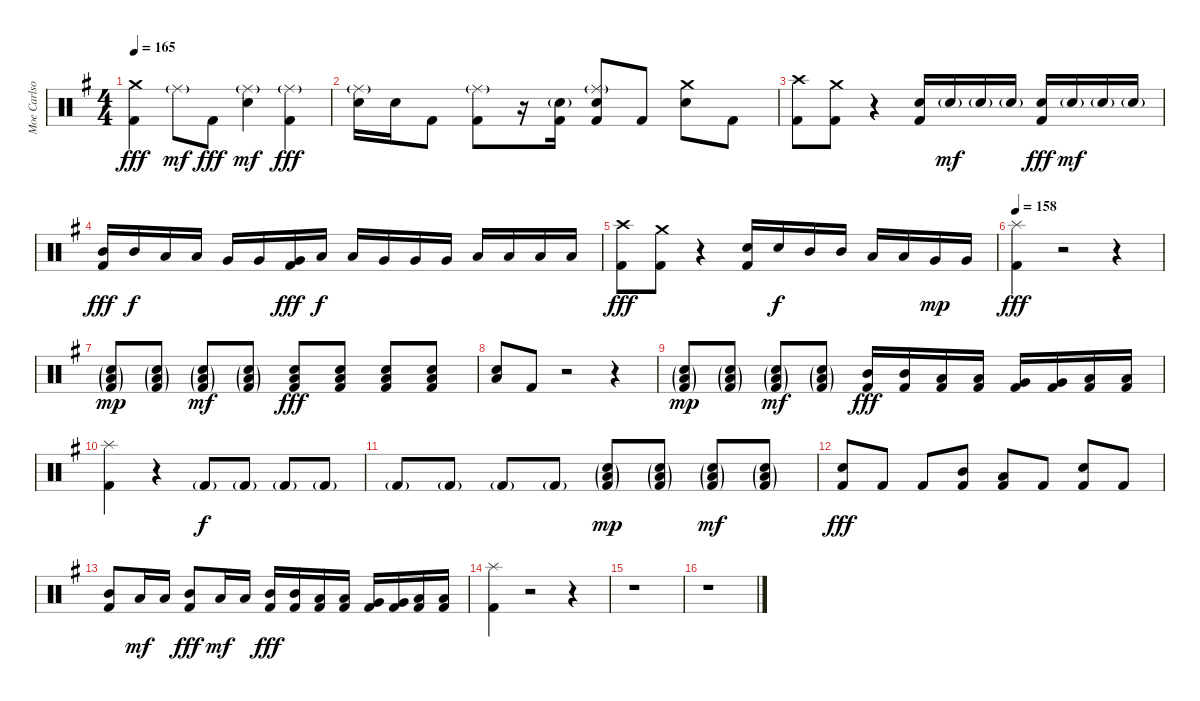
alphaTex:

\track ("Moe Carlson" "Moe Carlso") {instrument percussion}
\staff {score}
\articulation defaults
\ts (4 4)
\tempo 165
\clef neutral
\ks g
("Crash medium (hit)" "Kick (hit) 2").4{dy fff} "Ride (middle)"{g}.8{dy mf} "Kick (hit) 2".8{dy fff} ("Ride (middle)"{g} "Electric Snare (hit)").4{dy mf} ("Ride (middle)"{g} "Kick (hit) 2").4{dy fff} |
("Ride (middle)"{g} "Electric Snare (hit)").16 "Electric Snare (hit)".16 "Kick (hit) 2".8 ("Ride (middle)"{g} "Kick (hit) 2").8 r.16 ("Electric Snare (hit)"{g} "Kick (hit) 2").16 ("Ride (middle)"{g} "Electric Snare (hit)" "Kick (hit) 2").8 "Kick (hit) 2".8 ("Crash medium (hit)" "Electric Snare (hit)").8 "Kick (hit) 2".8 |
("Crash high (hit)" "Kick (hit) 2").8 ("Crash medium (hit)" "Kick (hit) 2").8 r.4 ("Electric Snare (hit)" "Kick (hit) 2").16 "Electric Snare (hit)"{g}.16{dy mf} "Electric Snare (hit)"{g}.16 "Electric Snare (hit)"{g}.16 ("Electric Snare (hit)" "Kick (hit) 2").16{dy fff} "Electric Snare (hit)"{g}.16{dy mf} "Electric Snare (hit)"{g}.16 "Electric Snare (hit)"{g}.16 |
("Mid Tom (hit)" "Kick (hit) 2").16{dy fff} "Mid Tom (hit)".16{dy f} "Low Tom (hit)".16 "Low Tom (hit)".16 "Very Low Tom (hit)".16 "Very Low Tom (hit)".16 ("Very Low Tom (hit)" "Kick (hit) 2").16{dy fff} "Low Tom (hit)".16{dy f} "Low Tom (hit)".16 "Very Low Tom (hit)".16 "Very Low Tom (hit)".16 "Very Low Tom (hit)".16 "Low Floor Tom (hit)".16 "Low Floor Tom (hit)".16 "Low Floor Tom (hit)".16 "Low Floor Tom (hit)".16 |
("Crash high (hit)" "Kick (hit) 2").8{dy fff} ("Crash medium (hit)" "Kick (hit) 2").8 r.4 ("Electric Snare (hit)" "Kick (hit) 2").16 "Electric Snare (hit)".16{dy f} "Mid Tom (hit)".16 "Mid Tom (hit)".16 "Low Tom (hit)".16 "Low Tom (hit)".16 "Very Low Tom (hit)".16{dy mp} "Very Low Tom (hit)".16 |
\tempo 158
("Splash (hit)" "Kick (hit) 2").4{dy fff} r.2 r.4 |
("Electric Snare (hit)"{g} "Low Floor Tom (hit)"{g} "Kick (hit) 2"{g}).8{dy mp} ("Electric Snare (hit)"{g} "Low Floor Tom (hit)"{g} "Kick (hit) 2"{g}).8 ("Electric Snare (hit)"{g} "Low Floor Tom (hit)"{g} "Kick (hit) 2"{g}).8{dy mf} ("Electric Snare (hit)"{g} "Low Floor Tom (hit)"{g} "Kick (hit) 2"{g}).8 ("Electric Snare (hit)" "Low Floor Tom (hit)" "Kick (hit) 2").8{dy fff} ("Electric Snare (hit)" "Low Floor Tom (hit)" "Kick (hit) 2").8 ("Electric Snare (hit)" "Low Floor Tom (hit)" "Kick (hit) 2").8 ("Electric Snare (hit)" "Low Floor Tom (hit)" "Kick (hit) 2").8 |
("Electric Snare (hit)" "Low Floor Tom (hit)").8 "Kick (hit) 2".8 r.2 r.4 |
("Electric Snare (hit)"{g} "Low Floor Tom (hit)"{g} "Kick (hit) 2"{g}).8{dy mp} ("Electric Snare (hit)"{g} "Low Floor Tom (hit)"{g} "Kick (hit) 2"{g}).8 ("Electric Snare (hit)"{g} "Low Floor Tom (hit)"{g} "Kick (hit) 2"{g}).8{dy mf} ("Electric Snare (hit)"{g} "Low Floor Tom (hit)"{g} "Kick (hit) 2"{g}).8 ("Mid Tom (hit)" "Kick (hit) 2").16{dy fff} ("Mid Tom (hit)" "Kick (hit) 2").16 ("Low Tom (hit)" "Kick (hit) 2").16 ("Low Tom (hit)" "Kick (hit) 2").16 ("Very Low Tom (hit)" "Kick (hit) 2").16 ("Very Low Tom (hit)" "Kick (hit) 2").16 ("Low Floor Tom (hit)" "Kick (hit) 2").16 ("Low Floor Tom (hit)" "Kick (hit) 2").16 |
("Splash (hit)" "Kick (hit) 2").4 r.4 "Kick (hit) 2"{g}.8{dy f} "Kick (hit) 2"{g}.8 "Kick (hit) 2"{g}.8 "Kick (hit) 2"{g}.8 |
"Kick (hit) 2"{g}.8 "Kick (hit) 2"{g}.8 "Kick (hit) 2"{g}.8 "Kick (hit) 2"{g}.8 ("Electric Snare (hit)"{g} "Low Floor Tom (hit)"{g} "Kick (hit) 2"{g}).8{dy mp} ("Electric Snare (hit)"{g} "Low Floor Tom (hit)"{g} "Kick (hit) 2"{g}).8 ("Electric Snare (hit)"{g} "Low Floor Tom (hit)"{g} "Kick (hit) 2"{g}).8{dy mf} ("Electric Snare (hit)"{g} "Low Floor Tom (hit)"{g} "Kick (hit) 2"{g}).8 |
("Electric Snare (hit)" "Kick (hit) 2").8{dy fff} "Kick (hit) 2".8 "Kick (hit) 2".8 ("Mid Tom (hit)" "Kick (hit) 2").8 ("Low Tom (hit)" "Kick (hit) 2").8 "Kick (hit) 2".8 ("Electric Snare (hit)" "Kick (hit) 2").8 "Kick (hit) 2".8 |
("Mid Tom (hit)" "Kick (hit) 2").8 "Low Tom (hit)".16{dy mf} "Low Tom (hit)".16 ("Mid Tom (hit)" "Kick (hit) 2").8{dy fff} "Low Tom (hit)".16{dy mf} "Low Tom (hit)".16 ("Mid Tom (hit)" "Kick (hit) 2").16{dy fff} ("Mid Tom (hit)" "Kick (hit) 2").16 ("Low Tom (hit)" "Kick (hit) 2").16 ("Low Tom (hit)" "Kick (hit) 2").16 ("Very Low Tom (hit)" "Kick (hit) 2").16 ("Very Low Tom (hit)" "Kick (hit) 2").16 ("Low Floor Tom (hit)" "Kick (hit) 2").16 ("Low Floor Tom (hit)" "Kick (hit) 2").16 |
("Splash (hit)" "Kick (hit) 2").4 r.2 r.4 |
r.1 |
r.1
